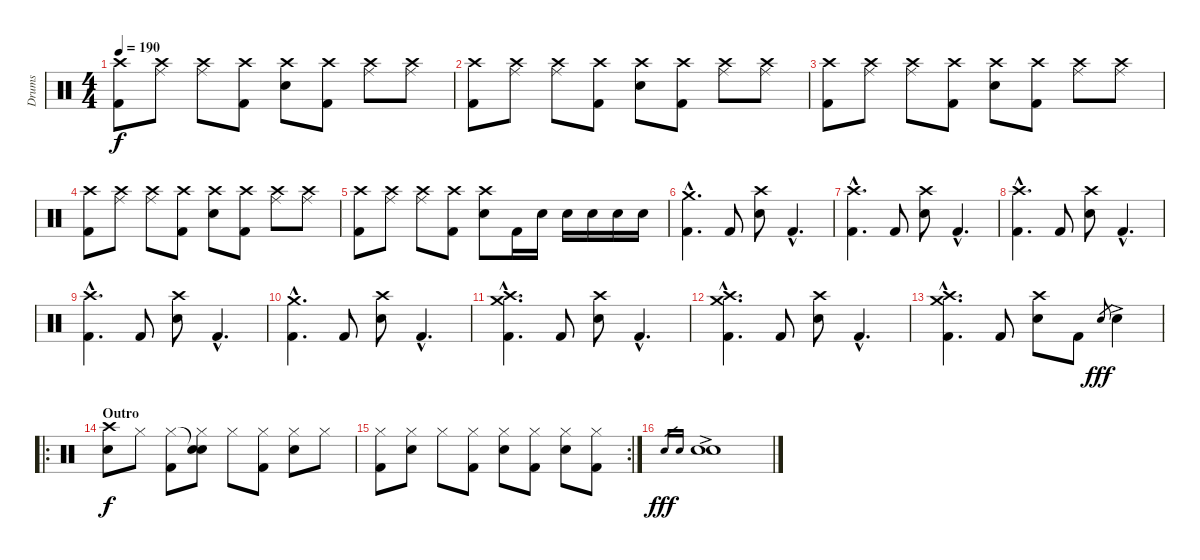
\track ("Drums" "Drums") {instrument percussion}
\staff {score}
\articulation defaults
\ts (4 4)
\tempo 190
\clef neutral
\ks c
("Crash high (hit)" "Kick (hit) 2").8{dy f} ("Crash high (hit)" "Ride (middle)").8 ("Crash high (hit)" "Ride (middle)").8 ("Crash high (hit)" "Kick (hit) 2").8 ("Crash high (hit)" "Electric Snare (hit)").8 ("Crash high (hit)" "Kick (hit) 2").8 ("Crash high (hit)" "Ride (middle)").8 ("Crash high (hit)" "Ride (middle)").8 |
("Crash high (hit)" "Kick (hit) 2").8 ("Crash high (hit)" "Ride (middle)").8 ("Crash high (hit)" "Ride (middle)").8 ("Crash high (hit)" "Kick (hit) 2").8 ("Crash high (hit)" "Electric Snare (hit)").8 ("Crash high (hit)" "Kick (hit) 2").8 ("Crash high (hit)" "Ride (middle)").8 ("Crash high (hit)" "Ride (middle)").8 |
("Crash high (hit)" "Kick (hit) 2").8 ("Crash high (hit)" "Ride (middle)").8 ("Crash high (hit)" "Ride (middle)").8 ("Crash high (hit)" "Kick (hit) 2").8 ("Crash high (hit)" "Electric Snare (hit)").8 ("Crash high (hit)" "Kick (hit) 2").8 ("Crash high (hit)" "Ride (middle)").8 ("Crash high (hit)" "Ride (middle)").8 |
("Crash high (hit)" "Kick (hit) 2").8 ("Crash high (hit)" "Ride (middle)").8 ("Crash high (hit)" "Ride (middle)").8 ("Crash high (hit)" "Kick (hit) 2").8 ("Crash high (hit)" "Electric Snare (hit)").8 ("Crash high (hit)" "Kick (hit) 2").8 ("Crash high (hit)" "Ride (middle)").8 ("Crash high (hit)" "Ride (middle)").8 |
("Crash high (hit)" "Kick (hit) 2").8 ("Crash high (hit)" "Ride (middle)").8 ("Crash high (hit)" "Ride (middle)").8 ("Crash high (hit)" "Kick (hit) 2").8 ("Crash high (hit)" "Electric Snare (hit)").8 "Kick (hit) 2".16 "Electric Snare (hit)".16 "Electric Snare (hit)".16 "Electric Snare (hit)".16 "Electric Snare (hit)".16 "Electric Snare (hit)".16 |
("Crash medium (hit)"{hac} "Kick (hit) 2"{hac}).4{d} "Kick (hit) 2".8 ("Crash high (hit)" "Electric Snare (hit)").8 "Kick (hit) 2"{hac}.4{d} |
("Crash high (hit)"{hac} "Kick (hit) 2"{hac}).4{d} "Kick (hit) 2".8 ("Crash high (hit)" "Electric Snare (hit)").8 "Kick (hit) 2"{hac}.4{d} |
("Crash high (hit)"{hac} "Kick (hit) 2"{hac}).4{d} "Kick (hit) 2".8 ("Crash high (hit)" "Electric Snare (hit)").8 "Kick (hit) 2"{hac}.4{d} |
("Crash high (hit)"{hac} "Kick (hit) 2"{hac}).4{d} "Kick (hit) 2".8 ("Crash high (hit)" "Electric Snare (hit)").8 "Kick (hit) 2"{hac}.4{d} |
("Crash medium (hit)"{hac} "Kick (hit) 2"{hac}).4{d} "Kick (hit) 2".8 ("Crash high (hit)" "Electric Snare (hit)").8 "Kick (hit) 2"{hac}.4{d} |
("Crash high (hit)"{hac} "Crash medium (hit)"{hac} "Kick (hit) 2"{hac}).4{d} "Kick (hit) 2".8 ("Crash high (hit)" "Electric Snare (hit)").8 "Kick (hit) 2"{hac}.4{d} |
("Crash high (hit)"{hac} "Crash medium (hit)"{hac} "Kick (hit) 2"{hac}).4{d} "Kick (hit) 2".8 ("Crash high (hit)" "Electric Snare (hit)").8 "Kick (hit) 2"{hac}.4{d} |
("Crash high (hit)"{hac} "Crash medium (hit)"{hac} "Kick (hit) 2"{hac}).4{d} "Kick (hit) 2".8 ("Crash high (hit)" "Electric Snare (hit)").8 "Kick (hit) 2".8 "Electric Snare (hit)".8{gr dy fff} "Electric Snare (hit)"{ac}.4 |
\ro
\section ("" "Outro")
("Crash high (hit)" "Electric Snare (hit)").8{dy f} "Hi-Hat (closed)".8 ("Hi-Hat (closed)" "Kick (hit) 2").8 ("Snare (hit)"{t} "Hi-Hat (closed)" "Electric Snare (hit)").8 "Hi-Hat (closed)".8 ("Hi-Hat (closed)" "Kick (hit) 2").8 ("Hi-Hat (closed)" "Electric Snare (hit)").8 "Hi-Hat (closed)".8 |
\rc 2
("Hi-Hat (closed)" "Kick (hit) 2").8 ("Hi-Hat (closed)" "Electric Snare (hit)").8 "Hi-Hat (closed)".8 ("Hi-Hat (closed)" "Kick (hit) 2").8 ("Hi-Hat (closed)" "Electric Snare (hit)").8 ("Hi-Hat (closed)" "Kick (hit) 2").8 ("Hi-Hat (closed)" "Electric Snare (hit)").8 ("Hi-Hat (closed)" "Kick (hit) 2").8 |
"Electric Snare (hit)".16{gr dy fff} "Electric Snare (hit)".16{gr} ("Electric Snare (hit)"{ac} "Electric Snare (hit)"{ac}).1
